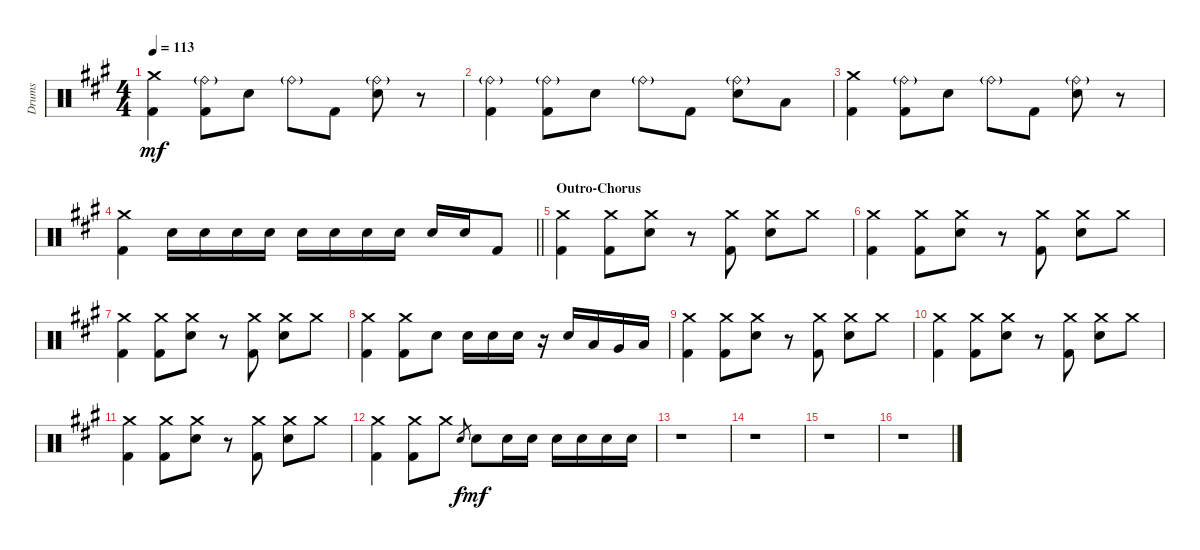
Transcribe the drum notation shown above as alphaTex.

\track ("Drums" "Drums") {instrument percussion}
\staff {score}
\articulation defaults
\ts (4 4)
\tempo 113
\clef neutral
\ks f#minor
("Crash medium (hit)" "Kick (hit) 2").4{dy mf} ("Ride (bell)"{g} "Kick (hit) 2").8 "Snare (hit) 2".8 "Ride (bell)"{g}.8 "Kick (hit) 2".8 ("Ride (bell)"{g} "Snare (hit) 2").8 r.8 |
("Ride (bell)"{g} "Kick (hit) 2").4 ("Ride (bell)"{g} "Kick (hit) 2").8 "Snare (hit) 2".8 "Ride (bell)"{g}.8 "Kick (hit) 2".8 ("Ride (bell)"{g} "Snare (hit) 2").8 "Low Floor Tom (hit)".8 |
("Crash medium (hit)" "Kick (hit) 2").4 ("Ride (bell)"{g} "Kick (hit) 2").8 "Snare (hit) 2".8 "Ride (bell)"{g}.8 "Kick (hit) 2".8 ("Ride (bell)"{g} "Snare (hit) 2").8 r.8 |
\barLineRight lightlight
("Crash medium (hit)" "Kick (hit) 2").4 "Electric Snare (hit)".16 "Electric Snare (hit)".16 "Electric Snare (hit)".16 "Electric Snare (hit)".16 "Electric Snare (hit)".16 "Electric Snare (hit)".16 "Electric Snare (hit)".16 "Electric Snare (hit)".16 "Electric Snare (hit)".16 "Electric Snare (hit)".16 "Kick (hit) 2".8 |
\section ("" "Outro-Chorus")
("Crash medium (hit)" "Kick (hit) 2").4 ("Crash medium (hit)" "Kick (hit) 2").8 ("Crash medium (hit)" "Snare (hit) 2").8 r.8 ("Crash medium (hit)" "Kick (hit) 2").8 ("Crash medium (hit)" "Snare (hit) 2").8 "Crash medium (hit)".8 |
("Crash medium (hit)" "Kick (hit) 2").4 ("Crash medium (hit)" "Kick (hit) 2").8 ("Crash medium (hit)" "Snare (hit) 2").8 r.8 ("Crash medium (hit)" "Kick (hit) 2").8 ("Crash medium (hit)" "Snare (hit) 2").8 "Crash medium (hit)".8 |
("Crash medium (hit)" "Kick (hit) 2").4 ("Crash medium (hit)" "Kick (hit) 2").8 ("Crash medium (hit)" "Snare (hit) 2").8 r.8 ("Crash medium (hit)" "Kick (hit) 2").8 ("Crash medium (hit)" "Snare (hit) 2").8 "Crash medium (hit)".8 |
("Crash medium (hit)" "Kick (hit) 2").4 ("Crash medium (hit)" "Kick (hit) 2").8 "Snare (hit) 2".8 "Snare (hit) 2".16 "Snare (hit) 2".16 "Snare (hit) 2".16 r.16 "Snare (hit) 2".16 "Low Tom (hit)".16 "Very Low Tom (hit)".16 "Low Floor Tom (hit)".16 |
("Crash medium (hit)" "Kick (hit) 2").4 ("Crash medium (hit)" "Kick (hit) 2").8 ("Crash medium (hit)" "Snare (hit) 2").8 r.8 ("Crash medium (hit)" "Kick (hit) 2").8 ("Crash medium (hit)" "Snare (hit) 2").8 "Crash medium (hit)".8 |
("Crash medium (hit)" "Kick (hit) 2").4 ("Crash medium (hit)" "Kick (hit) 2").8 ("Crash medium (hit)" "Snare (hit) 2").8 r.8 ("Crash medium (hit)" "Kick (hit) 2").8 ("Crash medium (hit)" "Snare (hit) 2").8 "Crash medium (hit)".8 |
("Crash medium (hit)" "Kick (hit) 2").4 ("Crash medium (hit)" "Kick (hit) 2").8 ("Crash medium (hit)" "Snare (hit) 2").8 r.8 ("Crash medium (hit)" "Kick (hit) 2").8 ("Crash medium (hit)" "Snare (hit) 2").8 "Crash medium (hit)".8 |
("Crash medium (hit)" "Kick (hit) 2").4 ("Crash medium (hit)" "Kick (hit) 2").8 "Crash medium (hit)".8 "Snare (hit) 2".8{gr dy f} "Snare (hit) 2".8{dy mf} "Snare (hit) 2".16 "Snare (hit) 2".16 "Snare (hit) 2".16 "Snare (hit) 2".16 "Snare (hit) 2".16 "Snare (hit) 2".16 |
r.1 |
r.1 |
r.1 |
r.1
